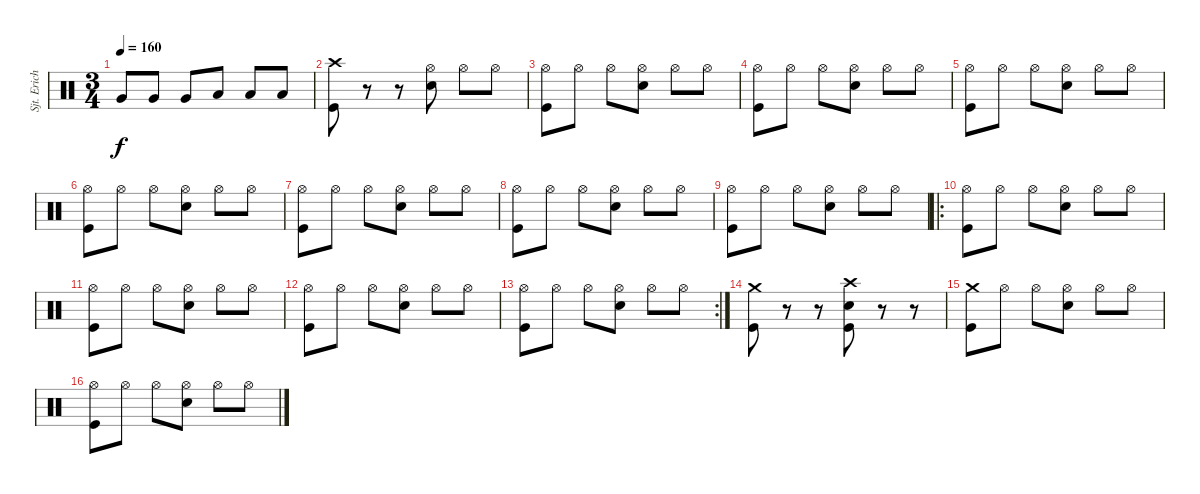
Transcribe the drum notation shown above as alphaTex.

\track ("Sjt. Erichsen" "Sjt. Erich") {instrument percussion}
\staff {score}
\articulation defaults
\ts (3 4)
\tempo 160
\clef neutral
\ks c "Very Low Tom (hit)".8{dy f} "Very Low Tom (hit)".8 "Very Low Tom (hit)".8 "Low Floor Tom (hit)".8 "Low Floor Tom (hit)".8 "Low Floor Tom (hit)".8
|
("Crash high (hit)" "Kick (hit)").8 r.8 r.8 ("Hi-Hat (open)" "Electric Snare (hit)").8 "Hi-Hat (open)".8 "Hi-Hat (open)".8 |
("Hi-Hat (open)" "Kick (hit)").8 "Hi-Hat (open)".8 "Hi-Hat (open)".8 ("Hi-Hat (open)" "Electric Snare (hit)").8 "Hi-Hat (open)".8 "Hi-Hat (open)".8 |
("Hi-Hat (open)" "Kick (hit)").8 "Hi-Hat (open)".8 "Hi-Hat (open)".8 ("Hi-Hat (open)" "Electric Snare (hit)").8 "Hi-Hat (open)".8 "Hi-Hat (open)".8 |
("Hi-Hat (open)" "Kick (hit)").8 "Hi-Hat (open)".8 "Hi-Hat (open)".8 ("Hi-Hat (open)" "Electric Snare (hit)").8 "Hi-Hat (open)".8 "Hi-Hat (open)".8 |
("Hi-Hat (open)" "Kick (hit)").8 "Hi-Hat (open)".8 "Hi-Hat (open)".8 ("Hi-Hat (open)" "Electric Snare (hit)").8 "Hi-Hat (open)".8 "Hi-Hat (open)".8 |
("Hi-Hat (open)" "Kick (hit)").8 "Hi-Hat (open)".8 "Hi-Hat (open)".8 ("Hi-Hat (open)" "Electric Snare (hit)").8 "Hi-Hat (open)".8 "Hi-Hat (open)".8 |
("Hi-Hat (open)" "Kick (hit)").8 "Hi-Hat (open)".8 "Hi-Hat (open)".8 ("Hi-Hat (open)" "Electric Snare (hit)").8 "Hi-Hat (open)".8 "Hi-Hat (open)".8 |
("Hi-Hat (open)" "Kick (hit)").8 "Hi-Hat (open)".8 "Hi-Hat (open)".8 ("Hi-Hat (open)" "Electric Snare (hit)").8 "Hi-Hat (open)".8 "Hi-Hat (open)".8 |
\ro
("Hi-Hat (open)" "Kick (hit)").8 "Hi-Hat (open)".8 "Hi-Hat (open)".8 ("Hi-Hat (open)" "Electric Snare (hit)").8 "Hi-Hat (open)".8 "Hi-Hat (open)".8 |
("Hi-Hat (open)" "Kick (hit)").8 "Hi-Hat (open)".8 "Hi-Hat (open)".8 ("Hi-Hat (open)" "Electric Snare (hit)").8 "Hi-Hat (open)".8 "Hi-Hat (open)".8 |
("Hi-Hat (open)" "Kick (hit)").8 "Hi-Hat (open)".8 "Hi-Hat (open)".8 ("Hi-Hat (open)" "Electric Snare (hit)").8 "Hi-Hat (open)".8 "Hi-Hat (open)".8 |
\rc 2
("Hi-Hat (open)" "Kick (hit)").8 "Hi-Hat (open)".8 "Hi-Hat (open)".8 ("Hi-Hat (open)" "Electric Snare (hit)").8 "Hi-Hat (open)".8 "Hi-Hat (open)".8 |
("Crash medium (hit)" "Kick (hit)").8 r.8 r.8 ("Crash high (hit)" "Electric Snare (hit)" "Kick (hit)").8 r.8 r.8 |
("Crash medium (hit)" "Kick (hit)").8 "Hi-Hat (open)".8 "Hi-Hat (open)".8 ("Hi-Hat (open)" "Electric Snare (hit)").8 "Hi-Hat (open)".8 "Hi-Hat (open)".8 |
("Hi-Hat (open)" "Kick (hit)").8 "Hi-Hat (open)".8 "Hi-Hat (open)".8 ("Hi-Hat (open)" "Electric Snare (hit)").8 "Hi-Hat (open)".8 "Hi-Hat (open)".8
